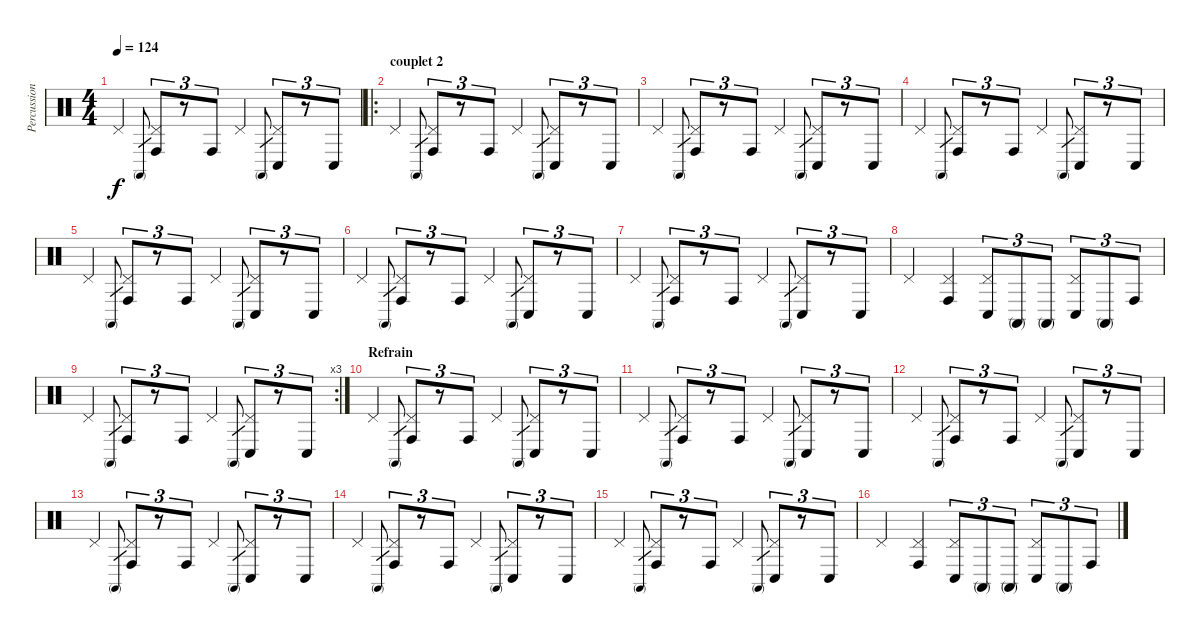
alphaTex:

\track ("Percussions" "Percussion") {instrument percussion}
\staff {score}
\articulation defaults
\ts (4 4)
\tempo 124
\clef neutral
\ks c "Pedal Hi-Hat (hit)".4{dy f} "Conga high (mute)".8{gr}
("Pedal Hi-Hat (hit)" "Conga high (hit)").8{tu (3 2)} r.8{tu (3 2)} "Conga high (hit)".8{tu (3 2)} "Pedal Hi-Hat (hit)".4 "Conga high (mute)".8{gr} ("Pedal Hi-Hat (hit)" "Conga low (hit)").8{tu (3 2)} r.8{tu (3 2)} "Conga low (hit)".8{tu (3 2)} |
\ro
\section ("" "couplet 2")
"Pedal Hi-Hat (hit)".4 "Conga high (mute)".8{gr} ("Pedal Hi-Hat (hit)" "Conga high (hit)").8{tu (3 2)} r.8{tu (3 2)} "Conga high (hit)".8{tu (3 2)} "Pedal Hi-Hat (hit)".4 "Conga high (mute)".8{gr} ("Pedal Hi-Hat (hit)" "Conga low (hit)").8{tu (3 2)} r.8{tu (3 2)} "Conga low (hit)".8{tu (3 2)} |
"Pedal Hi-Hat (hit)".4 "Conga high (mute)".8{gr} ("Pedal Hi-Hat (hit)" "Conga high (hit)").8{tu (3 2)} r.8{tu (3 2)} "Conga high (hit)".8{tu (3 2)} "Pedal Hi-Hat (hit)".4 "Conga high (mute)".8{gr} ("Pedal Hi-Hat (hit)" "Conga low (hit)").8{tu (3 2)} r.8{tu (3 2)} "Conga low (hit)".8{tu (3 2)} |
"Pedal Hi-Hat (hit)".4 "Conga high (mute)".8{gr} ("Pedal Hi-Hat (hit)" "Conga high (hit)").8{tu (3 2)} r.8{tu (3 2)} "Conga high (hit)".8{tu (3 2)} "Pedal Hi-Hat (hit)".4 "Conga high (mute)".8{gr} ("Pedal Hi-Hat (hit)" "Conga low (hit)").8{tu (3 2)} r.8{tu (3 2)} "Conga low (hit)".8{tu (3 2)} |
"Pedal Hi-Hat (hit)".4 "Conga high (mute)".8{gr} ("Pedal Hi-Hat (hit)" "Conga high (hit)").8{tu (3 2)} r.8{tu (3 2)} "Conga high (hit)".8{tu (3 2)} "Pedal Hi-Hat (hit)".4 "Conga high (mute)".8{gr} ("Pedal Hi-Hat (hit)" "Conga low (hit)").8{tu (3 2)} r.8{tu (3 2)} "Conga low (hit)".8{tu (3 2)} |
"Pedal Hi-Hat (hit)".4 "Conga high (mute)".8{gr} ("Pedal Hi-Hat (hit)" "Conga high (hit)").8{tu (3 2)} r.8{tu (3 2)} "Conga high (hit)".8{tu (3 2)} "Pedal Hi-Hat (hit)".4 "Conga high (mute)".8{gr} ("Pedal Hi-Hat (hit)" "Conga low (hit)").8{tu (3 2)} r.8{tu (3 2)} "Conga low (hit)".8{tu (3 2)} |
"Pedal Hi-Hat (hit)".4 "Conga high (mute)".8{gr} ("Pedal Hi-Hat (hit)" "Conga high (hit)").8{tu (3 2)} r.8{tu (3 2)} "Conga high (hit)".8{tu (3 2)} "Pedal Hi-Hat (hit)".4 "Conga high (mute)".8{gr} ("Pedal Hi-Hat (hit)" "Conga low (hit)").8{tu (3 2)} r.8{tu (3 2)} "Conga low (hit)".8{tu (3 2)} |
"Pedal Hi-Hat (hit)".4 ("Pedal Hi-Hat (hit)" "Conga high (hit)").4 ("Pedal Hi-Hat (hit)" "Conga low (hit)").8{tu (3 2)} "Conga high (mute)".8{tu (3 2)} "Conga high (mute)".8{tu (3 2)} ("Pedal Hi-Hat (hit)" "Conga low (hit)").8{tu (3 2)} "Conga high (mute)".8{tu (3 2)} "Conga high (hit)".8{tu (3 2)} |
\rc 3 "Pedal Hi-Hat (hit)".4 "Conga high (mute)".8{gr}
("Pedal Hi-Hat (hit)" "Conga high (hit)").8{tu (3 2)} r.8{tu (3 2)} "Conga high (hit)".8{tu (3 2)} "Pedal Hi-Hat (hit)".4 "Conga high (mute)".8{gr} ("Pedal Hi-Hat (hit)" "Conga low (hit)").8{tu (3 2)} r.8{tu (3 2)} "Conga low (hit)".8{tu (3 2)} |
\section ("" "Refrain ")
"Pedal Hi-Hat (hit)".4 "Conga high (mute)".8{gr} ("Pedal Hi-Hat (hit)" "Conga high (hit)").8{tu (3 2)} r.8{tu (3 2)} "Conga high (hit)".8{tu (3 2)} "Pedal Hi-Hat (hit)".4 "Conga high (mute)".8{gr} ("Pedal Hi-Hat (hit)" "Conga low (hit)").8{tu (3 2)} r.8{tu (3 2)} "Conga low (hit)".8{tu (3 2)} |
"Pedal Hi-Hat (hit)".4 "Conga high (mute)".8{gr} ("Pedal Hi-Hat (hit)" "Conga high (hit)").8{tu (3 2)} r.8{tu (3 2)} "Conga high (hit)".8{tu (3 2)} "Pedal Hi-Hat (hit)".4 "Conga high (mute)".8{gr} ("Pedal Hi-Hat (hit)" "Conga low (hit)").8{tu (3 2)} r.8{tu (3 2)} "Conga low (hit)".8{tu (3 2)} |
"Pedal Hi-Hat (hit)".4 "Conga high (mute)".8{gr} ("Pedal Hi-Hat (hit)" "Conga high (hit)").8{tu (3 2)} r.8{tu (3 2)} "Conga high (hit)".8{tu (3 2)} "Pedal Hi-Hat (hit)".4 "Conga high (mute)".8{gr} ("Pedal Hi-Hat (hit)" "Conga low (hit)").8{tu (3 2)} r.8{tu (3 2)} "Conga low (hit)".8{tu (3 2)} |
"Pedal Hi-Hat (hit)".4 "Conga high (mute)".8{gr} ("Pedal Hi-Hat (hit)" "Conga high (hit)").8{tu (3 2)} r.8{tu (3 2)} "Conga high (hit)".8{tu (3 2)} "Pedal Hi-Hat (hit)".4 "Conga high (mute)".8{gr} ("Pedal Hi-Hat (hit)" "Conga low (hit)").8{tu (3 2)} r.8{tu (3 2)} "Conga low (hit)".8{tu (3 2)} |
"Pedal Hi-Hat (hit)".4 "Conga high (mute)".8{gr} ("Pedal Hi-Hat (hit)" "Conga high (hit)").8{tu (3 2)} r.8{tu (3 2)} "Conga high (hit)".8{tu (3 2)} "Pedal Hi-Hat (hit)".4 "Conga high (mute)".8{gr} ("Pedal Hi-Hat (hit)" "Conga low (hit)").8{tu (3 2)} r.8{tu (3 2)} "Conga low (hit)".8{tu (3 2)} |
"Pedal Hi-Hat (hit)".4 "Conga high (mute)".8{gr} ("Pedal Hi-Hat (hit)" "Conga high (hit)").8{tu (3 2)} r.8{tu (3 2)} "Conga high (hit)".8{tu (3 2)} "Pedal Hi-Hat (hit)".4 "Conga high (mute)".8{gr} ("Pedal Hi-Hat (hit)" "Conga low (hit)").8{tu (3 2)} r.8{tu (3 2)} "Conga low (hit)".8{tu (3 2)} |
"Pedal Hi-Hat (hit)".4 ("Pedal Hi-Hat (hit)" "Conga high (hit)").4 ("Pedal Hi-Hat (hit)" "Conga low (hit)").8{tu (3 2)} "Conga high (mute)".8{tu (3 2)} "Conga high (mute)".8{tu (3 2)} ("Pedal Hi-Hat (hit)" "Conga low (hit)").8{tu (3 2)} "Conga high (mute)".8{tu (3 2)} "Conga high (hit)".8{tu (3 2)}
